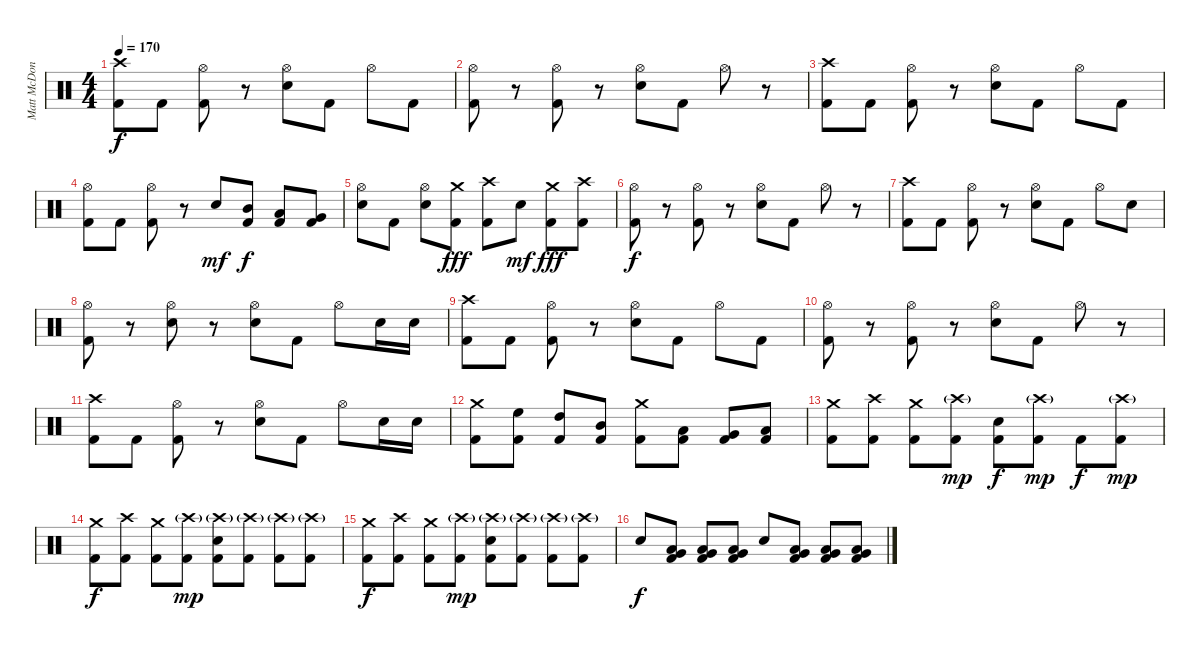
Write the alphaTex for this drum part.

\track ("Matt McDonough" "Matt McDon") {instrument percussion}
\staff {score}
\articulation defaults
\ts (4 4)
\tempo 170
\clef neutral
\ks c
("Crash high (hit)" "Kick (hit) 2").8{dy f} "Kick (hit) 2".8 ("Hi-Hat (open)" "Kick (hit) 2").8 r.8 ("Hi-Hat (open)" "Electric Snare (hit)").8 "Kick (hit) 2".8 "Hi-Hat (open)".8 "Kick (hit) 2".8 |
("Hi-Hat (open)" "Kick (hit) 2").8 r.8 ("Hi-Hat (open)" "Kick (hit) 2").8 r.8 ("Hi-Hat (open)" "Electric Snare (hit)").8 "Kick (hit) 2".8 "Hi-Hat (open)".8 r.8 |
("Crash high (hit)" "Kick (hit) 2").8 "Kick (hit) 2".8 ("Hi-Hat (open)" "Kick (hit) 2").8 r.8 ("Hi-Hat (open)" "Electric Snare (hit)").8 "Kick (hit) 2".8 "Hi-Hat (open)".8 "Kick (hit) 2".8 |
("Hi-Hat (open)" "Kick (hit) 2").8 "Kick (hit) 2".8 ("Hi-Hat (open)" "Kick (hit) 2").8 r.8 "Electric Snare (hit)".8{dy mf} ("Mid Tom (hit)" "Kick (hit) 2").8{dy f} ("Low Tom (hit)" "Kick (hit) 2").8 ("Very Low Tom (hit)" "Kick (hit) 2").8 |
("Hi-Hat (open)" "Electric Snare (hit)").8 "Kick (hit) 2".8 ("Hi-Hat (open)" "Electric Snare (hit)").8 ("Crash medium (hit)" "Kick (hit) 2").8{dy fff} ("Crash high (hit)" "Kick (hit) 2").8 "Electric Snare (hit)".8{dy mf} ("Crash medium (hit)" "Kick (hit) 2").8{dy fff} ("Crash high (hit)" "Kick (hit) 2").8 |
("Hi-Hat (open)" "Kick (hit) 2").8{dy f} r.8 ("Hi-Hat (open)" "Kick (hit) 2").8 r.8 ("Hi-Hat (open)" "Electric Snare (hit)").8 "Kick (hit) 2".8 "Hi-Hat (open)".8 r.8 |
("Crash high (hit)" "Kick (hit) 2").8 "Kick (hit) 2".8 ("Hi-Hat (open)" "Kick (hit) 2").8 r.8 ("Hi-Hat (open)" "Electric Snare (hit)").8 "Kick (hit) 2".8 "Hi-Hat (open)".8 "Electric Snare (hit)".8 |
("Hi-Hat (open)" "Kick (hit) 2").8 r.8 ("Hi-Hat (open)" "Electric Snare (hit)").8 r.8 ("Hi-Hat (open)" "Electric Snare (hit)").8 "Kick (hit) 2".8 "Hi-Hat (open)".8 "Electric Snare (hit)".16 "Electric Snare (hit)".16 |
("Crash high (hit)" "Kick (hit) 2").8 "Kick (hit) 2".8 ("Hi-Hat (open)" "Kick (hit) 2").8 r.8 ("Hi-Hat (open)" "Electric Snare (hit)").8 "Kick (hit) 2".8 "Hi-Hat (open)".8 "Kick (hit) 2".8 |
("Hi-Hat (open)" "Kick (hit) 2").8 r.8 ("Hi-Hat (open)" "Kick (hit) 2").8 r.8 ("Hi-Hat (open)" "Electric Snare (hit)").8 "Kick (hit) 2".8 "Hi-Hat (open)".8 r.8 |
("Crash high (hit)" "Kick (hit) 2").8 "Kick (hit) 2".8 ("Hi-Hat (open)" "Kick (hit) 2").8 r.8 ("Hi-Hat (open)" "Electric Snare (hit)").8 "Kick (hit) 2".8 "Hi-Hat (open)".8 "Electric Snare (hit)".16 "Electric Snare (hit)".16 |
("Crash medium (hit)" "Kick (hit) 2").8 ("High Floor Tom (hit)" "Kick (hit) 2").8 ("High Tom (hit)" "Kick (hit) 2").8 ("Mid Tom (hit)" "Kick (hit) 2").8 ("Crash medium (hit)" "Kick (hit) 2").8 ("Low Tom (hit)" "Kick (hit) 2").8 ("Very Low Tom (hit)" "Kick (hit) 2").8 ("Low Floor Tom (hit)" "Kick (hit) 2").8 |
("Crash medium (hit)" "Kick (hit) 2").8 ("Crash high (hit)" "Kick (hit) 2").8 ("Crash medium (hit)" "Kick (hit) 2").8 ("Crash high (hit)"{g} "Kick (hit) 2").8{dy mp} ("Electric Snare (hit)" "Kick (hit) 2").8{dy f} ("Crash high (hit)"{g} "Kick (hit) 2").8{dy mp} "Kick (hit) 2".8{dy f} ("Crash high (hit)"{g} "Kick (hit) 2").8{dy mp} |
("Crash medium (hit)" "Kick (hit) 2").8{dy f} ("Crash high (hit)" "Kick (hit) 2").8 ("Crash medium (hit)" "Kick (hit) 2").8 ("Crash high (hit)"{g} "Kick (hit) 2").8{dy mp} ("Crash high (hit)"{g} "Electric Snare (hit)" "Kick (hit) 2").8 ("Crash high (hit)"{g} "Kick (hit) 2").8 ("Crash high (hit)"{g} "Kick (hit) 2").8 ("Crash high (hit)"{g} "Kick (hit) 2").8 |
("Crash medium (hit)" "Kick (hit) 2").8{dy f} ("Crash high (hit)" "Kick (hit) 2").8 ("Crash medium (hit)" "Kick (hit) 2").8 ("Crash high (hit)"{g} "Kick (hit) 2").8{dy mp} ("Crash high (hit)"{g} "Electric Snare (hit)" "Kick (hit) 2").8 ("Crash high (hit)"{g} "Kick (hit) 2").8 ("Crash high (hit)"{g} "Kick (hit) 2").8 ("Crash high (hit)"{g} "Kick (hit) 2").8 |
"Electric Snare (hit)".8{dy f} ("Very Low Tom (hit)" "Low Floor Tom (hit)" "Kick (hit) 2").8 ("Very Low Tom (hit)" "Low Floor Tom (hit)" "Kick (hit) 2").8 ("Very Low Tom (hit)" "Low Floor Tom (hit)" "Kick (hit) 2").8 "Electric Snare (hit)".8 ("Very Low Tom (hit)" "Low Floor Tom (hit)" "Kick (hit) 2").8 ("Very Low Tom (hit)" "Low Floor Tom (hit)" "Kick (hit) 2").8 ("Very Low Tom (hit)" "Low Floor Tom (hit)" "Kick (hit) 2").8
